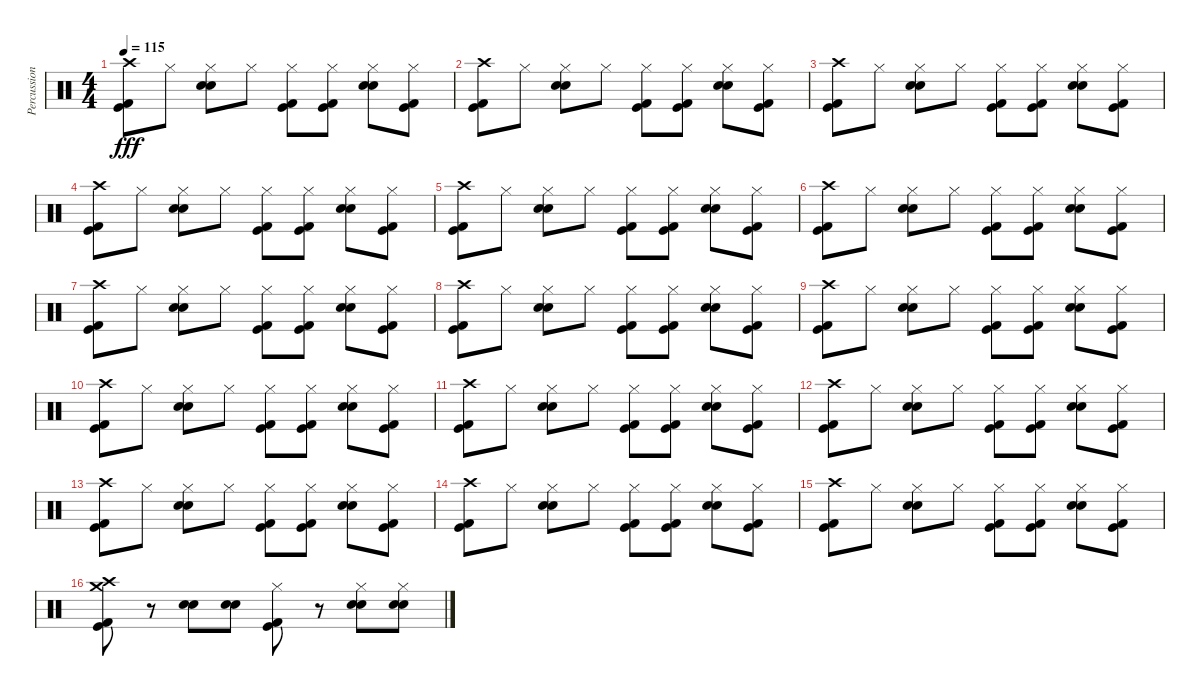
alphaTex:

\track ("Percussion" "Percussion") {instrument percussion}
\staff {score}
\articulation defaults
\ts (4 4)
\tempo 115
\clef neutral
\ks c
("Crash high (hit)" "Kick (hit) 2" "Kick (hit)").8{dy fff} "Hi-Hat (closed)".8 ("Hi-Hat (closed)" "Electric Snare (hit)" "Snare (hit) 2").8 "Hi-Hat (closed)".8 ("Hi-Hat (closed)" "Kick (hit) 2" "Kick (hit)").8 ("Hi-Hat (closed)" "Kick (hit) 2" "Kick (hit)").8 ("Hi-Hat (closed)" "Electric Snare (hit)" "Snare (hit) 2").8 ("Hi-Hat (closed)" "Kick (hit) 2" "Kick (hit)").8 |
("Crash high (hit)" "Kick (hit) 2" "Kick (hit)").8 "Hi-Hat (closed)".8 ("Hi-Hat (closed)" "Electric Snare (hit)" "Snare (hit) 2").8 "Hi-Hat (closed)".8 ("Hi-Hat (closed)" "Kick (hit) 2" "Kick (hit)").8 ("Hi-Hat (closed)" "Kick (hit) 2" "Kick (hit)").8 ("Hi-Hat (closed)" "Electric Snare (hit)" "Snare (hit) 2").8 ("Hi-Hat (closed)" "Kick (hit) 2" "Kick (hit)").8 |
("Crash high (hit)" "Kick (hit) 2" "Kick (hit)").8 "Hi-Hat (closed)".8 ("Hi-Hat (closed)" "Electric Snare (hit)" "Snare (hit) 2").8 "Hi-Hat (closed)".8 ("Hi-Hat (closed)" "Kick (hit) 2" "Kick (hit)").8 ("Hi-Hat (closed)" "Kick (hit) 2" "Kick (hit)").8 ("Hi-Hat (closed)" "Electric Snare (hit)" "Snare (hit) 2").8 ("Hi-Hat (closed)" "Kick (hit) 2" "Kick (hit)").8 |
("Crash high (hit)" "Kick (hit) 2" "Kick (hit)").8 "Hi-Hat (closed)".8 ("Hi-Hat (closed)" "Electric Snare (hit)" "Snare (hit) 2").8 "Hi-Hat (closed)".8 ("Hi-Hat (closed)" "Kick (hit) 2" "Kick (hit)").8 ("Hi-Hat (closed)" "Kick (hit) 2" "Kick (hit)").8 ("Hi-Hat (closed)" "Electric Snare (hit)" "Snare (hit) 2").8 ("Hi-Hat (closed)" "Kick (hit) 2" "Kick (hit)").8 |
("Crash high (hit)" "Kick (hit) 2" "Kick (hit)").8 "Hi-Hat (closed)".8 ("Hi-Hat (closed)" "Electric Snare (hit)" "Snare (hit) 2").8 "Hi-Hat (closed)".8 ("Hi-Hat (closed)" "Kick (hit) 2" "Kick (hit)").8 ("Hi-Hat (closed)" "Kick (hit) 2" "Kick (hit)").8 ("Hi-Hat (closed)" "Electric Snare (hit)" "Snare (hit) 2").8 ("Hi-Hat (closed)" "Kick (hit) 2" "Kick (hit)").8 |
("Crash high (hit)" "Kick (hit) 2" "Kick (hit)").8 "Hi-Hat (closed)".8 ("Hi-Hat (closed)" "Electric Snare (hit)" "Snare (hit) 2").8 "Hi-Hat (closed)".8 ("Hi-Hat (closed)" "Kick (hit) 2" "Kick (hit)").8 ("Hi-Hat (closed)" "Kick (hit) 2" "Kick (hit)").8 ("Hi-Hat (closed)" "Electric Snare (hit)" "Snare (hit) 2").8 ("Hi-Hat (closed)" "Kick (hit) 2" "Kick (hit)").8 |
("Crash high (hit)" "Kick (hit) 2" "Kick (hit)").8 "Hi-Hat (closed)".8 ("Hi-Hat (closed)" "Electric Snare (hit)" "Snare (hit) 2").8 "Hi-Hat (closed)".8 ("Hi-Hat (closed)" "Kick (hit) 2" "Kick (hit)").8 ("Hi-Hat (closed)" "Kick (hit) 2" "Kick (hit)").8 ("Hi-Hat (closed)" "Electric Snare (hit)" "Snare (hit) 2").8 ("Hi-Hat (closed)" "Kick (hit) 2" "Kick (hit)").8 |
("Crash high (hit)" "Kick (hit) 2" "Kick (hit)").8 "Hi-Hat (closed)".8 ("Hi-Hat (closed)" "Electric Snare (hit)" "Snare (hit) 2").8 "Hi-Hat (closed)".8 ("Hi-Hat (closed)" "Kick (hit) 2" "Kick (hit)").8 ("Hi-Hat (closed)" "Kick (hit) 2" "Kick (hit)").8 ("Hi-Hat (closed)" "Electric Snare (hit)" "Snare (hit) 2").8 ("Hi-Hat (closed)" "Kick (hit) 2" "Kick (hit)").8 |
("Crash high (hit)" "Kick (hit) 2" "Kick (hit)").8 "Hi-Hat (closed)".8 ("Hi-Hat (closed)" "Electric Snare (hit)" "Snare (hit) 2").8 "Hi-Hat (closed)".8 ("Hi-Hat (closed)" "Kick (hit) 2" "Kick (hit)").8 ("Hi-Hat (closed)" "Kick (hit) 2" "Kick (hit)").8 ("Hi-Hat (closed)" "Electric Snare (hit)" "Snare (hit) 2").8 ("Hi-Hat (closed)" "Kick (hit) 2" "Kick (hit)").8 |
("Crash high (hit)" "Kick (hit) 2" "Kick (hit)").8 "Hi-Hat (closed)".8 ("Hi-Hat (closed)" "Electric Snare (hit)" "Snare (hit) 2").8 "Hi-Hat (closed)".8 ("Hi-Hat (closed)" "Kick (hit) 2" "Kick (hit)").8 ("Hi-Hat (closed)" "Kick (hit) 2" "Kick (hit)").8 ("Hi-Hat (closed)" "Electric Snare (hit)" "Snare (hit) 2").8 ("Hi-Hat (closed)" "Kick (hit) 2" "Kick (hit)").8 |
("Crash high (hit)" "Kick (hit) 2" "Kick (hit)").8 "Hi-Hat (closed)".8 ("Hi-Hat (closed)" "Electric Snare (hit)" "Snare (hit) 2").8 "Hi-Hat (closed)".8 ("Hi-Hat (closed)" "Kick (hit) 2" "Kick (hit)").8 ("Hi-Hat (closed)" "Kick (hit) 2" "Kick (hit)").8 ("Hi-Hat (closed)" "Electric Snare (hit)" "Snare (hit) 2").8 ("Hi-Hat (closed)" "Kick (hit) 2" "Kick (hit)").8 |
("Crash high (hit)" "Kick (hit) 2" "Kick (hit)").8 "Hi-Hat (closed)".8 ("Hi-Hat (closed)" "Electric Snare (hit)" "Snare (hit) 2").8 "Hi-Hat (closed)".8 ("Hi-Hat (closed)" "Kick (hit) 2" "Kick (hit)").8 ("Hi-Hat (closed)" "Kick (hit) 2" "Kick (hit)").8 ("Hi-Hat (closed)" "Electric Snare (hit)" "Snare (hit) 2").8 ("Hi-Hat (closed)" "Kick (hit) 2" "Kick (hit)").8 |
("Crash high (hit)" "Kick (hit) 2" "Kick (hit)").8 "Hi-Hat (closed)".8 ("Hi-Hat (closed)" "Electric Snare (hit)" "Snare (hit) 2").8 "Hi-Hat (closed)".8 ("Hi-Hat (closed)" "Kick (hit) 2" "Kick (hit)").8 ("Hi-Hat (closed)" "Kick (hit) 2" "Kick (hit)").8 ("Hi-Hat (closed)" "Electric Snare (hit)" "Snare (hit) 2").8 ("Hi-Hat (closed)" "Kick (hit) 2" "Kick (hit)").8 |
("Crash high (hit)" "Kick (hit) 2" "Kick (hit)").8 "Hi-Hat (closed)".8 ("Hi-Hat (closed)" "Electric Snare (hit)" "Snare (hit) 2").8 "Hi-Hat (closed)".8 ("Hi-Hat (closed)" "Kick (hit) 2" "Kick (hit)").8 ("Hi-Hat (closed)" "Kick (hit) 2" "Kick (hit)").8 ("Hi-Hat (closed)" "Electric Snare (hit)" "Snare (hit) 2").8 ("Hi-Hat (closed)" "Kick (hit) 2" "Kick (hit)").8 |
("Crash high (hit)" "Kick (hit) 2" "Kick (hit)").8 "Hi-Hat (closed)".8 ("Hi-Hat (closed)" "Electric Snare (hit)" "Snare (hit) 2").8 "Hi-Hat (closed)".8 ("Hi-Hat (closed)" "Kick (hit) 2" "Kick (hit)").8 ("Hi-Hat (closed)" "Kick (hit) 2" "Kick (hit)").8 ("Hi-Hat (closed)" "Electric Snare (hit)" "Snare (hit) 2").8 ("Hi-Hat (closed)" "Kick (hit) 2" "Kick (hit)").8 |
("Crash high (hit)" "Crash medium (hit)" "Kick (hit) 2" "Kick (hit)").8 r.8 ("Electric Snare (hit)" "Snare (hit) 2").8 ("Electric Snare (hit)" "Snare (hit) 2").8 ("Hi-Hat (closed)" "Kick (hit) 2" "Kick (hit)").8 r.8 ("Hi-Hat (closed)" "Electric Snare (hit)" "Snare (hit) 2").8 ("Hi-Hat (closed)" "Electric Snare (hit)" "Snare (hit) 2").8
